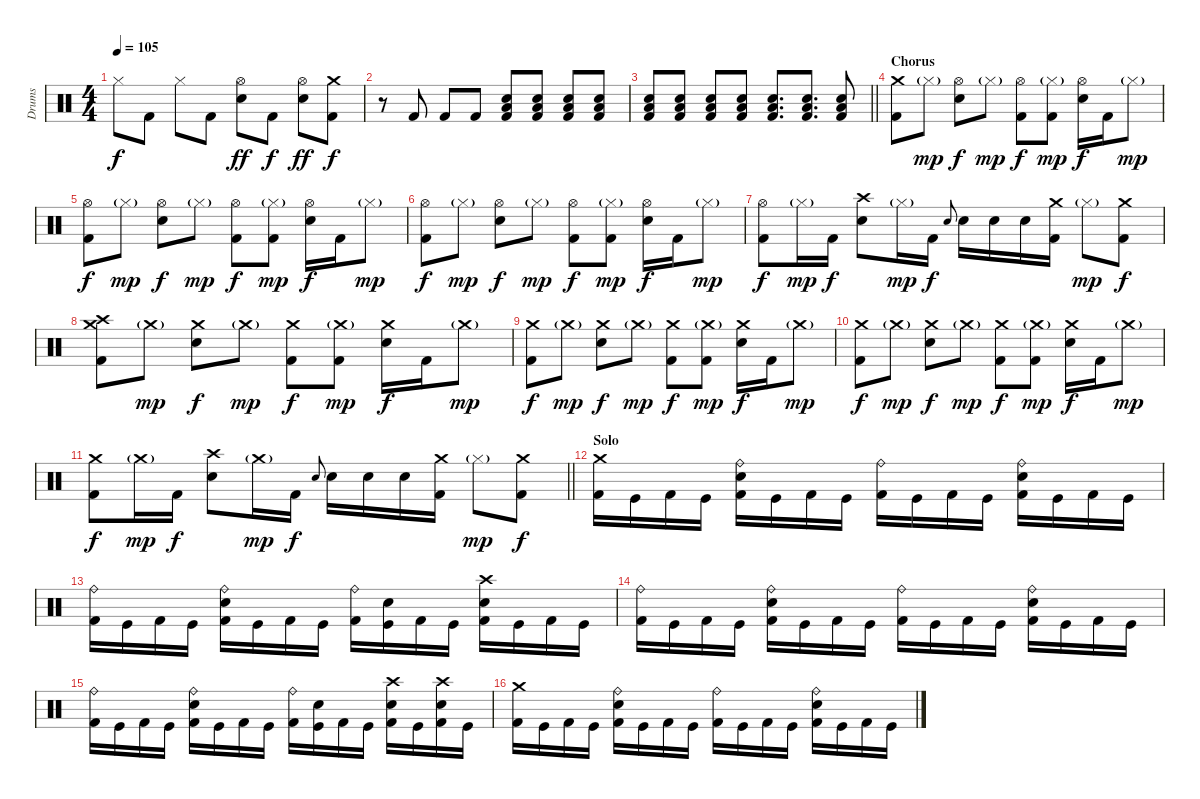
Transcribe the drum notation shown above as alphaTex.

\track ("Drums" "Drums") {instrument percussion}
\staff {score}
\articulation defaults
\ts (4 4)
\tempo 105
\clef neutral
\ks c "Hi-Hat (closed)".8{dy f} "Kick (hit) 2".8 "Hi-Hat (closed)".8 "Kick (hit) 2".8
("Hi-Hat (open)" "Snare (hit) 2").8{dy ff} "Kick (hit) 2".8{dy f} ("Hi-Hat (open)" "Snare (hit) 2").8{dy ff} ("Crash medium (hit)" "Kick (hit) 2").8{dy f} |
r.8 "Kick (hit) 2".8 "Kick (hit) 2".8 "Kick (hit) 2".8 ("Low Floor Tom (hit)" "Snare (hit) 2" "Kick (hit) 2").8 ("Low Floor Tom (hit)" "Snare (hit) 2" "Kick (hit) 2").8 ("Low Floor Tom (hit)" "Snare (hit) 2" "Kick (hit) 2").8 ("Low Floor Tom (hit)" "Snare (hit) 2" "Kick (hit) 2").8 |
\barLineRight lightlight
("Low Floor Tom (hit)" "Snare (hit) 2" "Kick (hit) 2").8 ("Low Floor Tom (hit)" "Snare (hit) 2" "Kick (hit) 2").8 ("Low Floor Tom (hit)" "Snare (hit) 2" "Kick (hit) 2").8 ("Low Floor Tom (hit)" "Snare (hit) 2" "Kick (hit) 2").8 ("Low Floor Tom (hit)" "Snare (hit) 2" "Kick (hit) 2").8{d} ("Low Floor Tom (hit)" "Snare (hit) 2" "Kick (hit) 2").8{d} ("Low Floor Tom (hit)" "Snare (hit) 2" "Kick (hit) 2").8 |
\section ("" "Chorus")
("Crash medium (hit)" "Kick (hit) 2").8 "Hi-Hat (closed)"{g}.8{dy mp} ("Hi-Hat (open)" "Snare (hit) 2").8{dy f} "Hi-Hat (closed)"{g}.8{dy mp} ("Hi-Hat (open)" "Kick (hit) 2").8{dy f} ("Hi-Hat (closed)"{g} "Kick (hit) 2").8{dy mp} ("Hi-Hat (open)" "Snare (hit) 2").16{dy f} "Kick (hit) 2".16 "Hi-Hat (closed)"{g}.8{dy mp} |
("Hi-Hat (open)" "Kick (hit) 2").8{dy f} "Hi-Hat (closed)"{g}.8{dy mp} ("Hi-Hat (open)" "Snare (hit) 2").8{dy f} "Hi-Hat (closed)"{g}.8{dy mp} ("Hi-Hat (open)" "Kick (hit) 2").8{dy f} ("Hi-Hat (closed)"{g} "Kick (hit) 2").8{dy mp} ("Hi-Hat (open)" "Snare (hit) 2").16{dy f} "Kick (hit) 2".16 "Hi-Hat (closed)"{g}.8{dy mp} |
("Hi-Hat (open)" "Kick (hit) 2").8{dy f} "Hi-Hat (closed)"{g}.8{dy mp} ("Hi-Hat (open)" "Snare (hit) 2").8{dy f} "Hi-Hat (closed)"{g}.8{dy mp} ("Hi-Hat (open)" "Kick (hit) 2").8{dy f} ("Hi-Hat (closed)"{g} "Kick (hit) 2").8{dy mp} ("Hi-Hat (open)" "Snare (hit) 2").16{dy f} "Kick (hit) 2".16 "Hi-Hat (closed)"{g}.8{dy mp} |
("Hi-Hat (open)" "Kick (hit) 2").8{dy f} "Hi-Hat (closed)"{g}.16{dy mp} "Kick (hit) 2".16{dy f} ("Crash high (hit)" "Snare (hit) 2").8 "Hi-Hat (closed)"{g}.16{dy mp} "Kick (hit) 2".16{dy f} "Electric Snare (hit)".8{gr onbeat} "Snare (hit) 2".16 "Snare (hit) 2".16 "Snare (hit) 2".16 ("Crash medium (hit)" "Kick (hit) 2").16 "Hi-Hat (closed)"{g}.8{dy mp} ("Crash medium (hit)" "Kick (hit) 2").8{dy f} |
("Crash medium (hit)" "Crash high (hit)" "Kick (hit) 2").8 "Crash medium (hit)"{g}.8{dy mp} ("Crash medium (hit)" "Snare (hit) 2").8{dy f} "Crash medium (hit)"{g}.8{dy mp} ("Crash medium (hit)" "Kick (hit) 2").8{dy f} ("Crash medium (hit)"{g} "Kick (hit) 2").8{dy mp} ("Crash medium (hit)" "Snare (hit) 2").16{dy f} "Kick (hit) 2".16 "Crash medium (hit)"{g}.8{dy mp} |
("Crash medium (hit)" "Kick (hit) 2").8{dy f} "Crash medium (hit)"{g}.8{dy mp} ("Crash medium (hit)" "Snare (hit) 2").8{dy f} "Crash medium (hit)"{g}.8{dy mp} ("Crash medium (hit)" "Kick (hit) 2").8{dy f} ("Crash medium (hit)"{g} "Kick (hit) 2").8{dy mp} ("Crash medium (hit)" "Snare (hit) 2").16{dy f} "Kick (hit) 2".16 "Crash medium (hit)"{g}.8{dy mp} |
("Crash medium (hit)" "Kick (hit) 2").8{dy f} "Crash medium (hit)"{g}.8{dy mp} ("Crash medium (hit)" "Snare (hit) 2").8{dy f} "Crash medium (hit)"{g}.8{dy mp} ("Crash medium (hit)" "Kick (hit) 2").8{dy f} ("Crash medium (hit)"{g} "Kick (hit) 2").8{dy mp} ("Crash medium (hit)" "Snare (hit) 2").16{dy f} "Kick (hit) 2".16 "Crash medium (hit)"{g}.8{dy mp} |
\barLineRight lightlight
("Crash medium (hit)" "Kick (hit) 2").8{dy f} "Crash medium (hit)"{g}.16{dy mp} "Kick (hit) 2".16{dy f} ("Crash high (hit)" "Snare (hit) 2").8 "Crash medium (hit)"{g}.16{dy mp} "Kick (hit) 2".16{dy f} "Electric Snare (hit)".8{gr onbeat} "Snare (hit) 2".16 "Snare (hit) 2".16 "Snare (hit) 2".16 ("Crash medium (hit)" "Kick (hit) 2").16 "Hi-Hat (closed)"{g}.8{dy mp} ("Crash medium (hit)" "Kick (hit) 2").8{dy f} |
\section ("" "Solo")
("Crash medium (hit)" "Kick (hit) 2").16 "Kick (hit)".16 "Kick (hit) 2".16 "Kick (hit)".16 ("Ride (bell)" "Snare (hit) 2" "Kick (hit) 2").16 "Kick (hit)".16 "Kick (hit) 2".16 "Kick (hit)".16 ("Ride (bell)" "Kick (hit) 2").16 "Kick (hit)".16 "Kick (hit) 2".16 "Kick (hit)".16 ("Ride (bell)" "Snare (hit) 2" "Kick (hit) 2").16 "Kick (hit)".16 "Kick (hit) 2".16 "Kick (hit)".16 |
("Ride (bell)" "Kick (hit) 2").16 "Kick (hit)".16 "Kick (hit) 2".16 "Kick (hit)".16 ("Ride (bell)" "Snare (hit) 2" "Kick (hit) 2").16 "Kick (hit)".16 "Kick (hit) 2".16 "Kick (hit)".16 ("Ride (bell)" "Kick (hit) 2").16 ("Snare (hit) 2" "Kick (hit)").16 "Kick (hit) 2".16 "Kick (hit)".16 ("Crash high (hit)" "Snare (hit) 2" "Kick (hit) 2").16 "Kick (hit)".16 "Kick (hit) 2".16 "Kick (hit)".16 |
("Ride (bell)" "Kick (hit) 2").16 "Kick (hit)".16 "Kick (hit) 2".16 "Kick (hit)".16 ("Ride (bell)" "Snare (hit) 2" "Kick (hit) 2").16 "Kick (hit)".16 "Kick (hit) 2".16 "Kick (hit)".16 ("Ride (bell)" "Kick (hit) 2").16 "Kick (hit)".16 "Kick (hit) 2".16 "Kick (hit)".16 ("Ride (bell)" "Snare (hit) 2" "Kick (hit) 2").16 "Kick (hit)".16 "Kick (hit) 2".16 "Kick (hit)".16 |
("Ride (bell)" "Kick (hit) 2").16 "Kick (hit)".16 "Kick (hit) 2".16 "Kick (hit)".16 ("Ride (bell)" "Snare (hit) 2" "Kick (hit) 2").16 "Kick (hit)".16 "Kick (hit) 2".16 "Kick (hit)".16 ("Ride (bell)" "Kick (hit) 2").16 ("Snare (hit) 2" "Kick (hit)").16 "Kick (hit) 2".16 "Kick (hit)".16 ("Crash high (hit)" "Snare (hit) 2" "Kick (hit) 2").16 "Kick (hit)".16 ("Crash high (hit)" "Snare (hit) 2" "Kick (hit) 2").16 "Kick (hit)".16 |
("Crash medium (hit)" "Kick (hit) 2").16 "Kick (hit)".16 "Kick (hit) 2".16 "Kick (hit)".16 ("Ride (bell)" "Snare (hit) 2" "Kick (hit) 2").16 "Kick (hit)".16 "Kick (hit) 2".16 "Kick (hit)".16 ("Ride (bell)" "Kick (hit) 2").16 "Kick (hit)".16 "Kick (hit) 2".16 "Kick (hit)".16 ("Ride (bell)" "Snare (hit) 2" "Kick (hit) 2").16 "Kick (hit)".16 "Kick (hit) 2".16 "Kick (hit)".16
